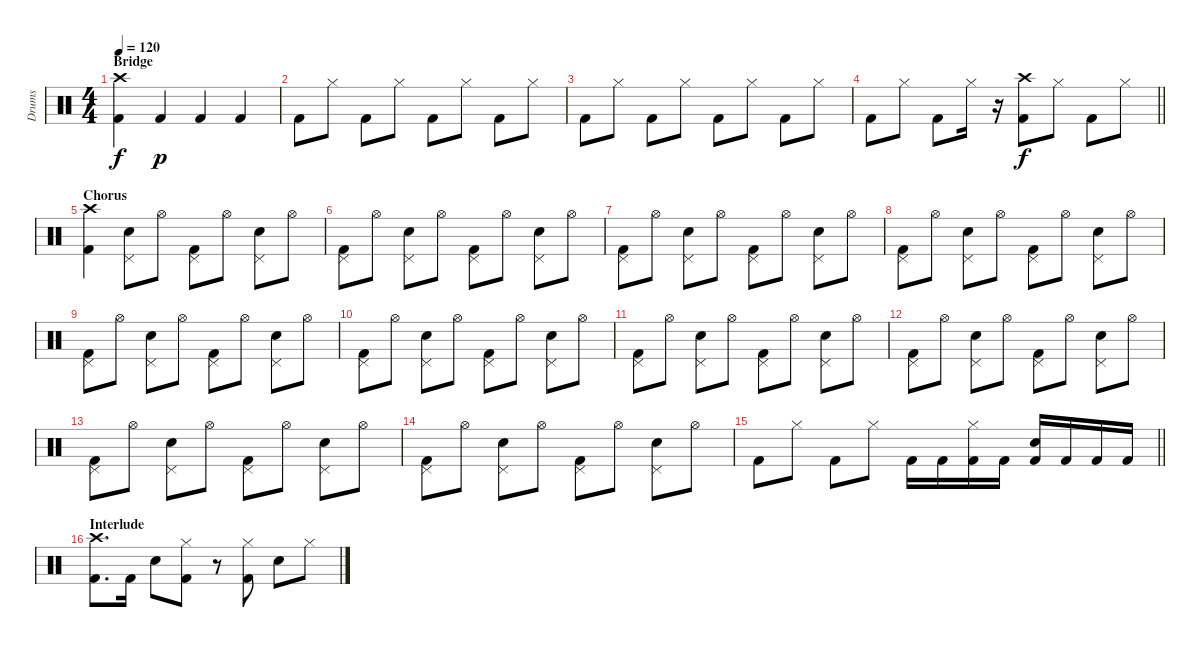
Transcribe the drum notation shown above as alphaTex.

\track ("Drums" "Drums") {instrument percussion}
\staff {score}
\articulation defaults
\ts (4 4)
\section ("" "Bridge")
\tempo 120
\clef neutral
\ks c
("Crash high (hit)" "Kick (hit) 2").4{dy f} "Kick (hit) 2".4{dy p} "Kick (hit) 2".4 "Kick (hit) 2".4 |
"Kick (hit) 2".8 "Hi-Hat (closed)".8 "Kick (hit) 2".8 "Hi-Hat (closed)".8 "Kick (hit) 2".8 "Hi-Hat (closed)".8 "Kick (hit) 2".8 "Hi-Hat (closed)".8 |
"Kick (hit) 2".8 "Hi-Hat (closed)".8 "Kick (hit) 2".8 "Hi-Hat (closed)".8 "Kick (hit) 2".8 "Hi-Hat (closed)".8 "Kick (hit) 2".8 "Hi-Hat (closed)".8 |
\barLineRight lightlight "Kick (hit) 2".8 "Hi-Hat (closed)".8 "Kick (hit) 2".8 "Hi-Hat (closed)".16
r.16{volume 0} ("Crash high (hit)" "Kick (hit) 2").8{dy f volume 13} "Hi-Hat (closed)".8 "Kick (hit) 2".8 "Hi-Hat (closed)".8 |
\section ("" "Chorus")
("Crash high (hit)" "Kick (hit) 2").4 ("Pedal Hi-Hat (hit)" "Electric Snare (hit)").8 "Hi-Hat (open)".8 ("Pedal Hi-Hat (hit)" "Kick (hit) 2").8 "Hi-Hat (open)".8 ("Pedal Hi-Hat (hit)" "Electric Snare (hit)").8 "Hi-Hat (open)".8 |
("Pedal Hi-Hat (hit)" "Kick (hit) 2").8 "Hi-Hat (open)".8 ("Pedal Hi-Hat (hit)" "Electric Snare (hit)").8 "Hi-Hat (open)".8 ("Pedal Hi-Hat (hit)" "Kick (hit) 2").8 "Hi-Hat (open)".8 ("Pedal Hi-Hat (hit)" "Electric Snare (hit)").8 "Hi-Hat (open)".8 |
("Pedal Hi-Hat (hit)" "Kick (hit) 2").8 "Hi-Hat (open)".8 ("Pedal Hi-Hat (hit)" "Electric Snare (hit)").8 "Hi-Hat (open)".8 ("Pedal Hi-Hat (hit)" "Kick (hit) 2").8 "Hi-Hat (open)".8 ("Pedal Hi-Hat (hit)" "Electric Snare (hit)").8 "Hi-Hat (open)".8 |
("Pedal Hi-Hat (hit)" "Kick (hit) 2").8 "Hi-Hat (open)".8 ("Pedal Hi-Hat (hit)" "Electric Snare (hit)").8 "Hi-Hat (open)".8 ("Pedal Hi-Hat (hit)" "Kick (hit) 2").8 "Hi-Hat (open)".8 ("Pedal Hi-Hat (hit)" "Electric Snare (hit)").8 "Hi-Hat (open)".8 |
("Pedal Hi-Hat (hit)" "Kick (hit) 2").8 "Hi-Hat (open)".8 ("Pedal Hi-Hat (hit)" "Electric Snare (hit)").8 "Hi-Hat (open)".8 ("Pedal Hi-Hat (hit)" "Kick (hit) 2").8 "Hi-Hat (open)".8 ("Pedal Hi-Hat (hit)" "Electric Snare (hit)").8 "Hi-Hat (open)".8 |
("Pedal Hi-Hat (hit)" "Kick (hit) 2").8 "Hi-Hat (open)".8 ("Pedal Hi-Hat (hit)" "Electric Snare (hit)").8 "Hi-Hat (open)".8 ("Pedal Hi-Hat (hit)" "Kick (hit) 2").8 "Hi-Hat (open)".8 ("Pedal Hi-Hat (hit)" "Electric Snare (hit)").8 "Hi-Hat (open)".8 |
("Pedal Hi-Hat (hit)" "Kick (hit) 2").8 "Hi-Hat (open)".8 ("Pedal Hi-Hat (hit)" "Electric Snare (hit)").8 "Hi-Hat (open)".8 ("Pedal Hi-Hat (hit)" "Kick (hit) 2").8 "Hi-Hat (open)".8 ("Pedal Hi-Hat (hit)" "Electric Snare (hit)").8 "Hi-Hat (open)".8 |
("Pedal Hi-Hat (hit)" "Kick (hit) 2").8 "Hi-Hat (open)".8 ("Pedal Hi-Hat (hit)" "Electric Snare (hit)").8 "Hi-Hat (open)".8 ("Pedal Hi-Hat (hit)" "Kick (hit) 2").8 "Hi-Hat (open)".8 ("Pedal Hi-Hat (hit)" "Electric Snare (hit)").8 "Hi-Hat (open)".8 |
("Pedal Hi-Hat (hit)" "Kick (hit) 2").8 "Hi-Hat (open)".8 ("Pedal Hi-Hat (hit)" "Electric Snare (hit)").8 "Hi-Hat (open)".8 ("Pedal Hi-Hat (hit)" "Kick (hit) 2").8 "Hi-Hat (open)".8 ("Pedal Hi-Hat (hit)" "Electric Snare (hit)").8 "Hi-Hat (open)".8 |
("Pedal Hi-Hat (hit)" "Kick (hit) 2").8 "Hi-Hat (open)".8 ("Pedal Hi-Hat (hit)" "Electric Snare (hit)").8 "Hi-Hat (open)".8 ("Pedal Hi-Hat (hit)" "Kick (hit) 2").8 "Hi-Hat (open)".8 ("Pedal Hi-Hat (hit)" "Electric Snare (hit)").8 "Hi-Hat (open)".8 |
\barLineRight lightlight "Kick (hit) 2".8 "Hi-Hat (closed)".8 "Kick (hit) 2".8 "Hi-Hat (closed)".8 "Kick (hit) 2".16 "Kick (hit) 2".16
("Hi-Hat (closed)" "Kick (hit) 2").16 "Kick (hit) 2".16 ("Electric Snare (hit)" "Kick (hit) 2").16 "Kick (hit) 2".16 "Kick (hit) 2".16 "Kick (hit) 2".16 |
\section ("" "Interlude")
("Crash high (hit)" "Kick (hit) 2").8{d} "Kick (hit) 2".16 "Electric Snare (hit)".8 ("Hi-Hat (closed)" "Kick (hit) 2").8 r.8 ("Hi-Hat (closed)" "Kick (hit) 2").8 "Electric Snare (hit)".8 "Hi-Hat (closed)".8
